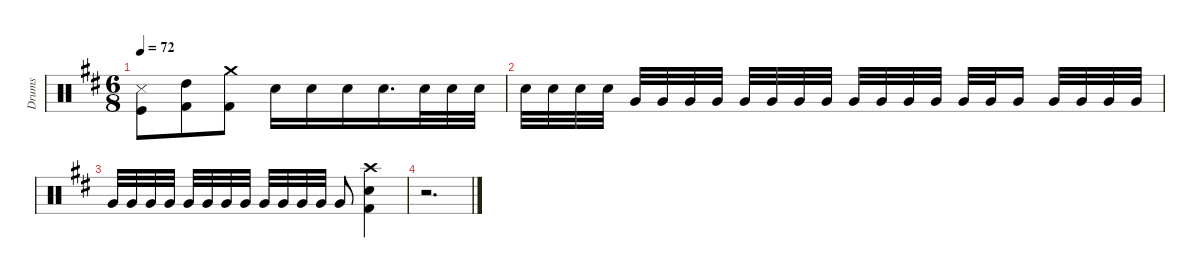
\defaultSystemsLayout 4
\hideDynamics
\bracketExtendMode groupsimilarinstruments
\firstSystemTrackNameMode fullname
\otherSystemsTrackNameOrientation horizontal
\track ("Drums" "drm.") {defaultSystemsLayout 4 instrument percussion}
\staff {score}
\articulation defaults
\ts (6 8)
\tempo 72
\clef neutral
\ks bminor
("Kick (hit)"{acc forcenatural} "Snare (side stick) 3"{acc forcenatural}).8{dy ff beam Down} ("Kick (hit) 2"{acc forcenatural} "High Tom (hit)"{acc forcenatural}).8{dy f beam Down} ("Crash medium (hit)"{acc forcenatural} "Kick (hit) 2"{acc forcenatural}).8{dy fff beam Down} "Snare (hit) 2"{acc forcenatural}.16{dy mf beam Down} "Snare (hit) 2"{acc forcenatural}.16{dy mp beam Down} "Snare (hit) 2"{acc forcenatural}.16{beam Down} "Snare (hit) 2"{acc forcenatural}.16{d dy ff beam Down} "Snare (hit) 2"{acc forcenatural}.32{beam Down} "Snare (hit) 2"{acc forcenatural}.32{dy f beam Down} "Snare (hit) 2"{acc forcenatural}.32{dy ff beam Down} |
"Snare (hit) 2"{acc forcenatural}.32{beam Down} "Snare (hit) 2"{acc forcenatural}.32{dy f beam Down} "Snare (hit) 2"{acc forcenatural}.32{dy ff beam Down} "Snare (hit) 2"{acc forcenatural}.32{dy mf beam Down beam split} "Very Low Tom (hit)"{acc forcenatural}.32{dy ff beam Up} "Very Low Tom (hit)"{acc forcenatural}.32{dy f beam Up} "Very Low Tom (hit)"{acc forcenatural}.32{dy ff beam Up} "Very Low Tom (hit)"{acc forcenatural}.32{dy mf beam Up beam split} "Very Low Tom (hit)"{acc forcenatural}.32{dy ff beam Up} "Very Low Tom (hit)"{acc forcenatural}.32{dy f beam Up} "Very Low Tom (hit)"{acc forcenatural}.32{dy ff beam Up} "Very Low Tom (hit)"{acc forcenatural}.32{dy mf beam Up} "Very Low Tom (hit)"{acc forcenatural}.32{dy ff beam Up} "Very Low Tom (hit)"{acc forcenatural}.32{dy f beam Up} "Very Low Tom (hit)"{acc forcenatural}.32{dy ff beam Up} "Very Low Tom (hit)"{acc forcenatural}.32{dy mf beam Up beam split} "Very Low Tom (hit)"{acc forcenatural}.32{dy ff beam Up} "Very Low Tom (hit)"{acc forcenatural}.32{dy mf beam Up} "Very Low Tom (hit)"{acc forcenatural}.16{dy ff beam Up beam split} "Very Low Tom (hit)"{acc forcenatural}.32{beam Up} "Very Low Tom (hit)"{acc forcenatural}.32{dy f beam Up} "Very Low Tom (hit)"{acc forcenatural}.32{dy ff beam Up} "Very Low Tom (hit)"{acc forcenatural}.32{dy mf beam Up} |
"Very Low Tom (hit)"{acc forcenatural}.32{dy ff beam Up} "Very Low Tom (hit)"{acc forcenatural}.32{dy f beam Up} "Very Low Tom (hit)"{acc forcenatural}.32{dy ff beam Up} "Very Low Tom (hit)"{acc forcenatural}.32{dy f beam Up beam split} "Very Low Tom (hit)"{acc forcenatural}.32{dy ff beam Up} "Very Low Tom (hit)"{acc forcenatural}.32{dy f beam Up} "Very Low Tom (hit)"{acc forcenatural}.32{dy ff beam Up} "Very Low Tom (hit)"{acc forcenatural}.32{dy f beam Up beam split} "Very Low Tom (hit)"{acc forcenatural}.32{dy ff beam Up} "Very Low Tom (hit)"{acc forcenatural}.32{beam Up} "Very Low Tom (hit)"{acc forcenatural}.32{beam Up} "Very Low Tom (hit)"{acc forcenatural}.32{beam Up} "Very Low Tom (hit)"{acc forcenatural}.8{dy fff beam Up} ("Snare (hit) 2"{acc forcenatural} "Kick (hit) 2"{acc forcenatural} "Crash high (hit)"{acc #}).4{dy ff beam Down} |
r.2{d beam Down}
